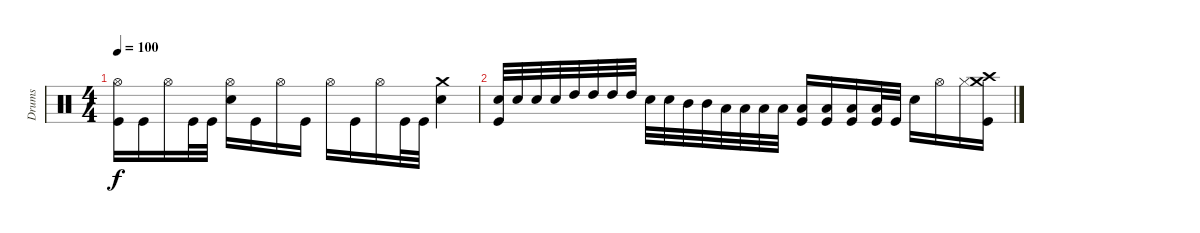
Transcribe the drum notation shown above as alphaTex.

\track ("Drums" "Drums") {instrument percussion}
\staff {score}
\articulation defaults
\ts (4 4)
\tempo 100
\clef neutral
\ks c
("Hi-Hat (open)" "Kick (hit)").16{dy f} "Kick (hit)".16 "Hi-Hat (open)".16 "Kick (hit)".32 "Kick (hit)".32 ("Hi-Hat (open)" "Electric Snare (hit)").16 "Kick (hit)".16 "Hi-Hat (open)".16 "Kick (hit)".16 "Hi-Hat (open)".16 "Kick (hit)".16 "Hi-Hat (open)".16 "Kick (hit)".32 "Kick (hit)".32 ("Crash medium (hit)" "Electric Snare (hit)").4 |
("Electric Snare (hit)" "Kick (hit)").32 "Electric Snare (hit)".32 "Electric Snare (hit)".32 "Electric Snare (hit)".32 "High Tom (hit)".32 "High Tom (hit)".32 "High Tom (hit)".32 "High Tom (hit)".32 "Electric Snare (hit)".32 "Electric Snare (hit)".32 "Mid Tom (hit)".32 "Mid Tom (hit)".32 "Low Tom (hit)".32 "Low Tom (hit)".32 "Low Tom (hit)".32 "Low Tom (hit)".32 ("Low Floor Tom (hit)" "Kick (hit)").16 ("Low Floor Tom (hit)" "Kick (hit)").16 ("Low Floor Tom (hit)" "Kick (hit)").16 ("Low Floor Tom (hit)" "Kick (hit)").32 "Kick (hit)".32 "Electric Snare (hit)".16 "Hi-Hat (open)".16 "Hi-Hat (closed)".16 ("Crash high (hit)" "Crash medium (hit)" "Kick (hit)").16
